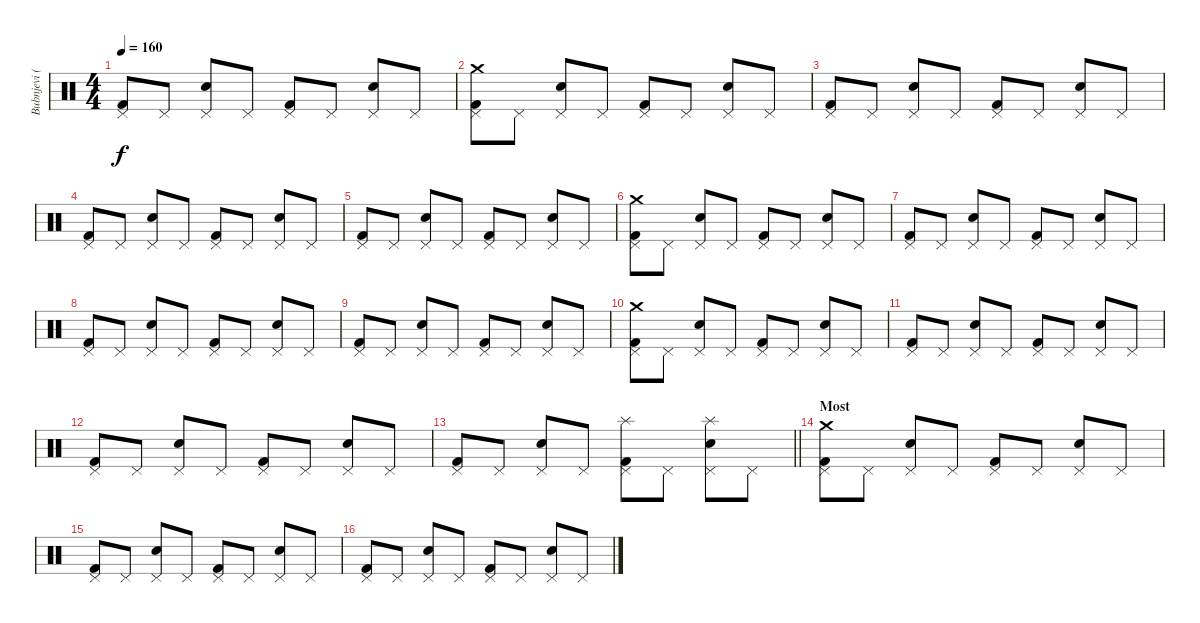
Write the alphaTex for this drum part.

\track ("Bubnjevi (Nasko Budimic)" "Bubnjevi (") {instrument percussion}
\staff {score}
\articulation defaults
\ts (4 4)
\tempo 160
\clef neutral
\ks c
("Pedal Hi-Hat (hit)" "Kick (hit) 2").8{dy f} "Pedal Hi-Hat (hit)".8 ("Pedal Hi-Hat (hit)" "Snare (hit) 2").8 "Pedal Hi-Hat (hit)".8 ("Pedal Hi-Hat (hit)" "Kick (hit) 2").8 "Pedal Hi-Hat (hit)".8 ("Pedal Hi-Hat (hit)" "Snare (hit) 2").8 "Pedal Hi-Hat (hit)".8 |
("Crash medium (hit)" "Pedal Hi-Hat (hit)" "Kick (hit) 2").8 "Pedal Hi-Hat (hit)".8 ("Pedal Hi-Hat (hit)" "Snare (hit) 2").8 "Pedal Hi-Hat (hit)".8 ("Pedal Hi-Hat (hit)" "Kick (hit) 2").8 "Pedal Hi-Hat (hit)".8 ("Pedal Hi-Hat (hit)" "Snare (hit) 2").8 "Pedal Hi-Hat (hit)".8 |
("Pedal Hi-Hat (hit)" "Kick (hit) 2").8 "Pedal Hi-Hat (hit)".8 ("Pedal Hi-Hat (hit)" "Snare (hit) 2").8 "Pedal Hi-Hat (hit)".8 ("Pedal Hi-Hat (hit)" "Kick (hit) 2").8 "Pedal Hi-Hat (hit)".8 ("Pedal Hi-Hat (hit)" "Snare (hit) 2").8 "Pedal Hi-Hat (hit)".8 |
("Pedal Hi-Hat (hit)" "Kick (hit) 2").8 "Pedal Hi-Hat (hit)".8 ("Pedal Hi-Hat (hit)" "Snare (hit) 2").8 "Pedal Hi-Hat (hit)".8 ("Pedal Hi-Hat (hit)" "Kick (hit) 2").8 "Pedal Hi-Hat (hit)".8 ("Pedal Hi-Hat (hit)" "Snare (hit) 2").8 "Pedal Hi-Hat (hit)".8 |
("Pedal Hi-Hat (hit)" "Kick (hit) 2").8 "Pedal Hi-Hat (hit)".8 ("Pedal Hi-Hat (hit)" "Snare (hit) 2").8 "Pedal Hi-Hat (hit)".8 ("Pedal Hi-Hat (hit)" "Kick (hit) 2").8 "Pedal Hi-Hat (hit)".8 ("Pedal Hi-Hat (hit)" "Snare (hit) 2").8 "Pedal Hi-Hat (hit)".8 |
("Crash medium (hit)" "Pedal Hi-Hat (hit)" "Kick (hit) 2").8 "Pedal Hi-Hat (hit)".8 ("Pedal Hi-Hat (hit)" "Snare (hit) 2").8 "Pedal Hi-Hat (hit)".8 ("Pedal Hi-Hat (hit)" "Kick (hit) 2").8 "Pedal Hi-Hat (hit)".8 ("Pedal Hi-Hat (hit)" "Snare (hit) 2").8 "Pedal Hi-Hat (hit)".8 |
("Pedal Hi-Hat (hit)" "Kick (hit) 2").8 "Pedal Hi-Hat (hit)".8 ("Pedal Hi-Hat (hit)" "Snare (hit) 2").8 "Pedal Hi-Hat (hit)".8 ("Pedal Hi-Hat (hit)" "Kick (hit) 2").8 "Pedal Hi-Hat (hit)".8 ("Pedal Hi-Hat (hit)" "Snare (hit) 2").8 "Pedal Hi-Hat (hit)".8 |
("Pedal Hi-Hat (hit)" "Kick (hit) 2").8 "Pedal Hi-Hat (hit)".8 ("Pedal Hi-Hat (hit)" "Snare (hit) 2").8 "Pedal Hi-Hat (hit)".8 ("Pedal Hi-Hat (hit)" "Kick (hit) 2").8 "Pedal Hi-Hat (hit)".8 ("Pedal Hi-Hat (hit)" "Snare (hit) 2").8 "Pedal Hi-Hat (hit)".8 |
("Pedal Hi-Hat (hit)" "Kick (hit) 2").8 "Pedal Hi-Hat (hit)".8 ("Pedal Hi-Hat (hit)" "Snare (hit) 2").8 "Pedal Hi-Hat (hit)".8 ("Pedal Hi-Hat (hit)" "Kick (hit) 2").8 "Pedal Hi-Hat (hit)".8 ("Pedal Hi-Hat (hit)" "Snare (hit) 2").8 "Pedal Hi-Hat (hit)".8 |
("Crash medium (hit)" "Pedal Hi-Hat (hit)" "Kick (hit) 2").8 "Pedal Hi-Hat (hit)".8 ("Pedal Hi-Hat (hit)" "Snare (hit) 2").8 "Pedal Hi-Hat (hit)".8 ("Pedal Hi-Hat (hit)" "Kick (hit) 2").8 "Pedal Hi-Hat (hit)".8 ("Pedal Hi-Hat (hit)" "Snare (hit) 2").8 "Pedal Hi-Hat (hit)".8 |
("Pedal Hi-Hat (hit)" "Kick (hit) 2").8 "Pedal Hi-Hat (hit)".8 ("Pedal Hi-Hat (hit)" "Snare (hit) 2").8 "Pedal Hi-Hat (hit)".8 ("Pedal Hi-Hat (hit)" "Kick (hit) 2").8 "Pedal Hi-Hat (hit)".8 ("Pedal Hi-Hat (hit)" "Snare (hit) 2").8 "Pedal Hi-Hat (hit)".8 |
("Pedal Hi-Hat (hit)" "Kick (hit) 2").8 "Pedal Hi-Hat (hit)".8 ("Pedal Hi-Hat (hit)" "Snare (hit) 2").8 "Pedal Hi-Hat (hit)".8 ("Pedal Hi-Hat (hit)" "Kick (hit) 2").8 "Pedal Hi-Hat (hit)".8 ("Pedal Hi-Hat (hit)" "Snare (hit) 2").8 "Pedal Hi-Hat (hit)".8 |
\barLineRight lightlight
("Pedal Hi-Hat (hit)" "Kick (hit) 2").8 "Pedal Hi-Hat (hit)".8 ("Pedal Hi-Hat (hit)" "Snare (hit) 2").8 "Pedal Hi-Hat (hit)".8 ("Splash (hit)" "Pedal Hi-Hat (hit)" "Kick (hit) 2").8 "Pedal Hi-Hat (hit)".8 ("Splash (hit)" "Pedal Hi-Hat (hit)" "Snare (hit) 2").8 "Pedal Hi-Hat (hit)".8 |
\section ("" "Most")
("Crash medium (hit)" "Pedal Hi-Hat (hit)" "Kick (hit) 2").8 "Pedal Hi-Hat (hit)".8 ("Pedal Hi-Hat (hit)" "Snare (hit) 2").8 "Pedal Hi-Hat (hit)".8 ("Pedal Hi-Hat (hit)" "Kick (hit) 2").8 "Pedal Hi-Hat (hit)".8 ("Pedal Hi-Hat (hit)" "Snare (hit) 2").8 "Pedal Hi-Hat (hit)".8 |
("Pedal Hi-Hat (hit)" "Kick (hit) 2").8 "Pedal Hi-Hat (hit)".8 ("Pedal Hi-Hat (hit)" "Snare (hit) 2").8 "Pedal Hi-Hat (hit)".8 ("Pedal Hi-Hat (hit)" "Kick (hit) 2").8 "Pedal Hi-Hat (hit)".8 ("Pedal Hi-Hat (hit)" "Snare (hit) 2").8 "Pedal Hi-Hat (hit)".8 |
("Pedal Hi-Hat (hit)" "Kick (hit) 2").8 "Pedal Hi-Hat (hit)".8 ("Pedal Hi-Hat (hit)" "Snare (hit) 2").8 "Pedal Hi-Hat (hit)".8 ("Pedal Hi-Hat (hit)" "Kick (hit) 2").8 "Pedal Hi-Hat (hit)".8 ("Pedal Hi-Hat (hit)" "Snare (hit) 2").8 "Pedal Hi-Hat (hit)".8
